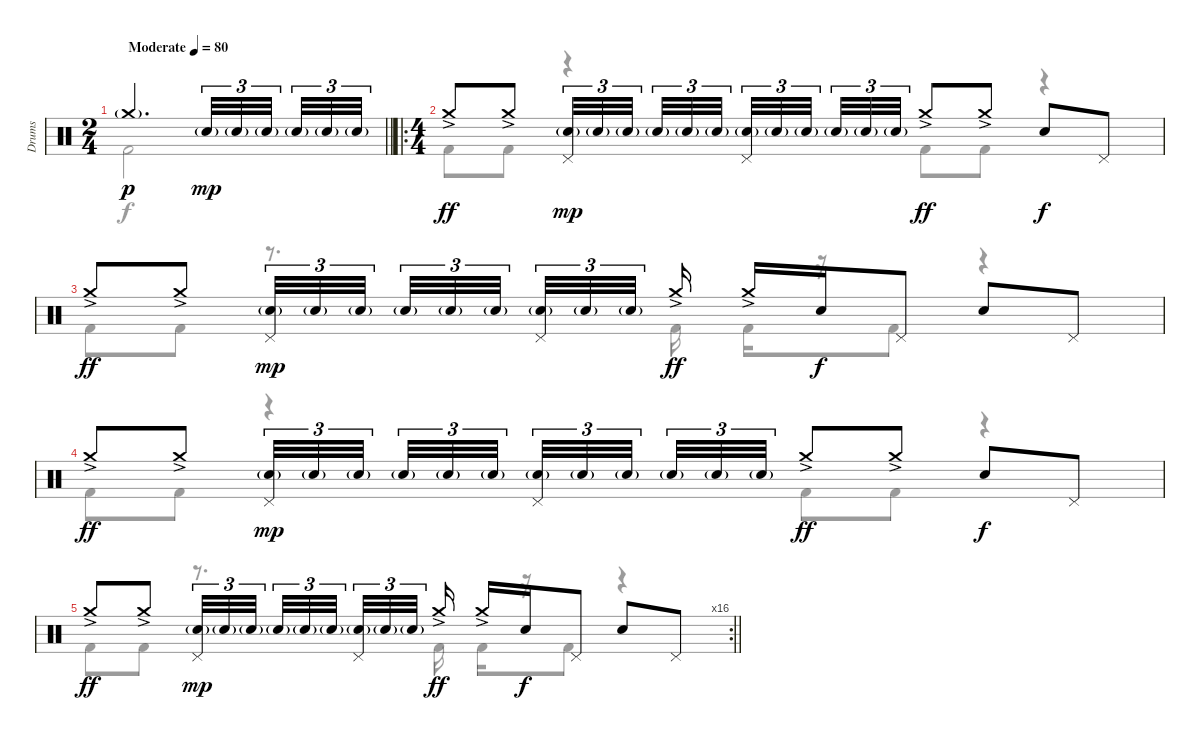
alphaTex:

\track ("Drums" "Drums") {instrument percussion}
\staff {score}
\articulation defaults
\voice
\ts (2 4)
\tempo (80 "Moderate")
\clef neutral
\barLineRight lightlight
\ks c "Crash medium (hit)"{g}.4{d dy p} "Snare (hit) 2"{g}.32{tu (3 2) dy mp} "Snare (hit) 2"{g}.32{tu (3 2)} "Snare (hit) 2"{g}.32{tu (3 2) beam splitsecondary} "Snare (hit) 2"{g}.32{tu (3 2)} "Snare (hit) 2"{g}.32{tu (3 2)} "Snare (hit) 2"{g}.32{tu (3 2)}
|
\ro
\ts (4 4)
"Crash medium (hit)"{ac}.8{dy ff} "Crash medium (hit)"{ac}.8 ("Pedal Hi-Hat (hit)" "Snare (hit) 2"{g}).32{tu (3 2) dy mp} "Snare (hit) 2"{g}.32{tu (3 2)} "Snare (hit) 2"{g}.32{tu (3 2) beam splitsecondary} "Snare (hit) 2"{g}.32{tu (3 2)} "Snare (hit) 2"{g}.32{tu (3 2)} "Snare (hit) 2"{g}.32{tu (3 2) beam splitsecondary} ("Pedal Hi-Hat (hit)" "Snare (hit) 2"{g}).32{tu (3 2)} "Snare (hit) 2"{g}.32{tu (3 2)} "Snare (hit) 2"{g}.32{tu (3 2) beam splitsecondary} "Snare (hit) 2"{g}.32{tu (3 2)} "Snare (hit) 2"{g}.32{tu (3 2)} "Snare (hit) 2"{g}.32{tu (3 2)} "Crash medium (hit)"{ac}.8{dy ff} "Crash medium (hit)"{ac}.8 "Electric Snare (hit)".8{dy f} "Pedal Hi-Hat (hit)".8 |
"Crash medium (hit)"{ac}.8{dy ff} "Crash medium (hit)"{ac}.8 ("Pedal Hi-Hat (hit)" "Snare (hit) 2"{g}).32{tu (3 2) dy mp} "Snare (hit) 2"{g}.32{tu (3 2)} "Snare (hit) 2"{g}.32{tu (3 2) beam splitsecondary} "Snare (hit) 2"{g}.32{tu (3 2)} "Snare (hit) 2"{g}.32{tu (3 2)} "Snare (hit) 2"{g}.32{tu (3 2) beam splitsecondary} ("Pedal Hi-Hat (hit)" "Snare (hit) 2"{g}).32{tu (3 2)} "Snare (hit) 2"{g}.32{tu (3 2)} "Snare (hit) 2"{g}.32{tu (3 2) beam splitsecondary} "Crash medium (hit)"{ac}.16{dy ff} "Crash medium (hit)"{ac}.16 "Snare (hit) 2".16{dy f} "Pedal Hi-Hat (hit)".8 "Electric Snare (hit)".8 "Pedal Hi-Hat (hit)".8 |
"Crash medium (hit)"{ac}.8{dy ff} "Crash medium (hit)"{ac}.8 ("Pedal Hi-Hat (hit)" "Snare (hit) 2"{g}).32{tu (3 2) dy mp} "Snare (hit) 2"{g}.32{tu (3 2)} "Snare (hit) 2"{g}.32{tu (3 2) beam splitsecondary} "Snare (hit) 2"{g}.32{tu (3 2)} "Snare (hit) 2"{g}.32{tu (3 2)} "Snare (hit) 2"{g}.32{tu (3 2) beam splitsecondary} ("Pedal Hi-Hat (hit)" "Snare (hit) 2"{g}).32{tu (3 2)} "Snare (hit) 2"{g}.32{tu (3 2)} "Snare (hit) 2"{g}.32{tu (3 2) beam splitsecondary} "Snare (hit) 2"{g}.32{tu (3 2)} "Snare (hit) 2"{g}.32{tu (3 2)} "Snare (hit) 2"{g}.32{tu (3 2)} "Crash medium (hit)"{ac}.8{dy ff} "Crash medium (hit)"{ac}.8 "Electric Snare (hit)".8{dy f} "Pedal Hi-Hat (hit)".8 |
\rc 16
\barLineRight lightlight "Crash medium (hit)"{ac}.8{dy ff} "Crash medium (hit)"{ac}.8
("Pedal Hi-Hat (hit)" "Snare (hit) 2"{g}).32{tu (3 2) dy mp} "Snare (hit) 2"{g}.32{tu (3 2)} "Snare (hit) 2"{g}.32{tu (3 2) beam splitsecondary} "Snare (hit) 2"{g}.32{tu (3 2)} "Snare (hit) 2"{g}.32{tu (3 2)} "Snare (hit) 2"{g}.32{tu (3 2) beam splitsecondary} ("Pedal Hi-Hat (hit)" "Snare (hit) 2"{g}).32{tu (3 2)} "Snare (hit) 2"{g}.32{tu (3 2)} "Snare (hit) 2"{g}.32{tu (3 2) beam splitsecondary} "Crash medium (hit)"{ac}.16{dy ff} "Crash medium (hit)"{ac}.16 "Snare (hit) 2".16{dy f} "Pedal Hi-Hat (hit)".8 "Electric Snare (hit)".8 "Pedal Hi-Hat (hit)".8 |
\voice
\clef neutral
\ottava regular
\simile none
\barLineRight lightlight
\ks c "Kick (hit) 2".2{dy f}
|
"Kick (hit) 2".8 "Kick (hit) 2".8 r.4 "Kick (hit) 2".8 "Kick (hit) 2".8 r.4 |
"Kick (hit) 2".8 "Kick (hit) 2".8 r.8{d} "Kick (hit) 2".16 "Kick (hit) 2".16 r.16 "Kick (hit) 2".8 r.4 |
"Kick (hit) 2".8 "Kick (hit) 2".8 r.4 "Kick (hit) 2".8 "Kick (hit) 2".8 r.4 |
\barLineRight lightlight "Kick (hit) 2".8 "Kick (hit) 2".8
r.8{d} "Kick (hit) 2".16 "Kick (hit) 2".16 r.16 "Kick (hit) 2".8 r.4 |
